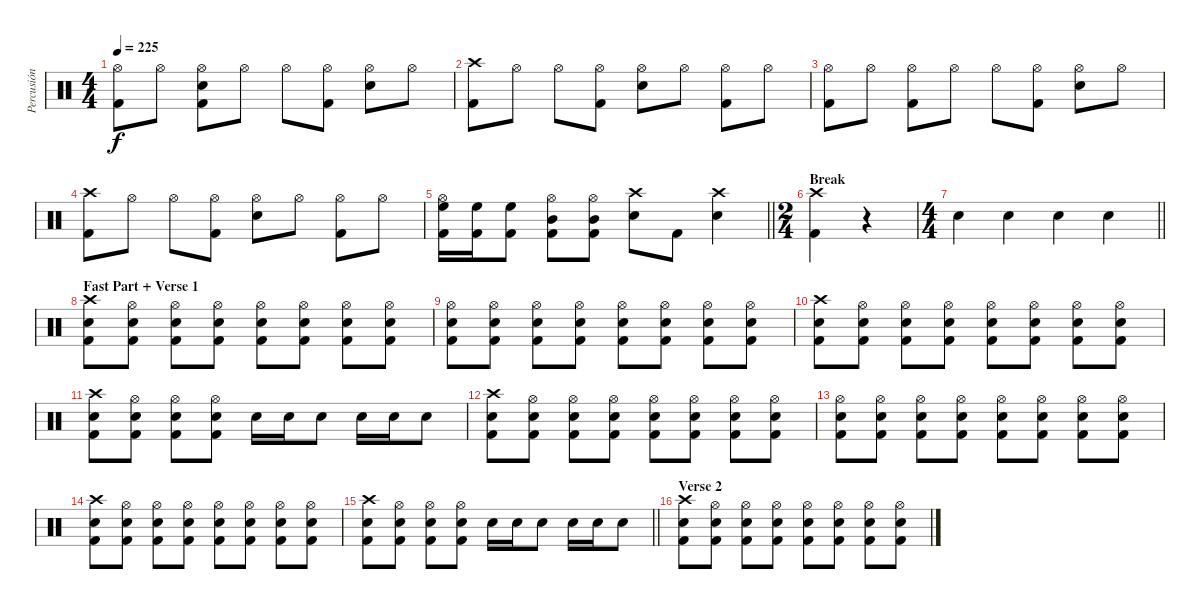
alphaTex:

\track ("Percusión" "Percusión") {instrument percussion}
\staff {score}
\articulation defaults
\ts (4 4)
\tempo 225
\clef neutral
\ks c
("Hi-Hat (open)" "Kick (hit) 2").8{dy f} "Hi-Hat (open)".8 ("Hi-Hat (open)" "Electric Snare (hit)" "Kick (hit) 2").8 "Hi-Hat (open)".8 "Hi-Hat (open)".8 ("Hi-Hat (open)" "Kick (hit) 2").8 ("Hi-Hat (open)" "Electric Snare (hit)").8 "Hi-Hat (open)".8 |
("Crash high (hit)" "Kick (hit) 2").8 "Hi-Hat (open)".8 "Hi-Hat (open)".8 ("Hi-Hat (open)" "Kick (hit) 2").8 ("Hi-Hat (open)" "Electric Snare (hit)").8 "Hi-Hat (open)".8 ("Hi-Hat (open)" "Kick (hit) 2").8 "Hi-Hat (open)".8 |
("Hi-Hat (open)" "Kick (hit) 2").8 "Hi-Hat (open)".8 ("Hi-Hat (open)" "Kick (hit) 2").8 "Hi-Hat (open)".8 "Hi-Hat (open)".8 ("Hi-Hat (open)" "Kick (hit) 2").8 ("Hi-Hat (open)" "Electric Snare (hit)").8 "Hi-Hat (open)".8 |
("Crash high (hit)" "Kick (hit) 2").8 "Hi-Hat (open)".8 "Hi-Hat (open)".8 ("Hi-Hat (open)" "Kick (hit) 2").8 ("Hi-Hat (open)" "Electric Snare (hit)").8 "Hi-Hat (open)".8 ("Hi-Hat (open)" "Kick (hit) 2").8 "Hi-Hat (open)".8 |
\barLineRight lightlight
("Hi-Hat (open)" "High Floor Tom (hit)" "Kick (hit) 2").16 ("High Floor Tom (hit)" "Kick (hit) 2").16 ("High Floor Tom (hit)" "Kick (hit) 2").8 ("Hi-Hat (open)" "Mid Tom (hit)" "Kick (hit) 2").8 ("Hi-Hat (open)" "Mid Tom (hit)" "Kick (hit) 2").8 ("Crash high (hit)" "Electric Snare (hit)").8 "Kick (hit) 2".8 ("Crash high (hit)" "Electric Snare (hit)").4 |
\ts (2 4)
\section ("" "Break")
("Crash high (hit)" "Kick (hit) 2").4 r.4 |
\ts (4 4)
\barLineRight lightlight "Electric Snare (hit)".4 "Electric Snare (hit)".4 "Electric Snare (hit)".4 "Electric Snare (hit)".4
|
\section ("" "Fast Part + Verse 1")
("Crash high (hit)" "Electric Snare (hit)" "Kick (hit) 2").8 ("Hi-Hat (open)" "Electric Snare (hit)" "Kick (hit) 2").8 ("Hi-Hat (open)" "Electric Snare (hit)" "Kick (hit) 2").8 ("Hi-Hat (open)" "Electric Snare (hit)" "Kick (hit) 2").8 ("Hi-Hat (open)" "Electric Snare (hit)" "Kick (hit) 2").8 ("Hi-Hat (open)" "Electric Snare (hit)" "Kick (hit) 2").8 ("Hi-Hat (open)" "Electric Snare (hit)" "Kick (hit) 2").8 ("Hi-Hat (open)" "Electric Snare (hit)" "Kick (hit) 2").8 |
("Hi-Hat (open)" "Electric Snare (hit)" "Kick (hit) 2").8 ("Hi-Hat (open)" "Electric Snare (hit)" "Kick (hit) 2").8 ("Hi-Hat (open)" "Electric Snare (hit)" "Kick (hit) 2").8 ("Hi-Hat (open)" "Electric Snare (hit)" "Kick (hit) 2").8 ("Hi-Hat (open)" "Electric Snare (hit)" "Kick (hit) 2").8 ("Hi-Hat (open)" "Electric Snare (hit)" "Kick (hit) 2").8 ("Hi-Hat (open)" "Electric Snare (hit)" "Kick (hit) 2").8 ("Hi-Hat (open)" "Electric Snare (hit)" "Kick (hit) 2").8 |
("Crash high (hit)" "Electric Snare (hit)" "Kick (hit) 2").8 ("Hi-Hat (open)" "Electric Snare (hit)" "Kick (hit) 2").8 ("Hi-Hat (open)" "Electric Snare (hit)" "Kick (hit) 2").8 ("Hi-Hat (open)" "Electric Snare (hit)" "Kick (hit) 2").8 ("Hi-Hat (open)" "Electric Snare (hit)" "Kick (hit) 2").8 ("Hi-Hat (open)" "Electric Snare (hit)" "Kick (hit) 2").8 ("Hi-Hat (open)" "Electric Snare (hit)" "Kick (hit) 2").8 ("Hi-Hat (open)" "Electric Snare (hit)" "Kick (hit) 2").8 |
("Crash high (hit)" "Electric Snare (hit)" "Kick (hit) 2").8 ("Hi-Hat (open)" "Electric Snare (hit)" "Kick (hit) 2").8 ("Hi-Hat (open)" "Electric Snare (hit)" "Kick (hit) 2").8 ("Hi-Hat (open)" "Electric Snare (hit)" "Kick (hit) 2").8 "Electric Snare (hit)".16 "Electric Snare (hit)".16 "Electric Snare (hit)".8 "Electric Snare (hit)".16 "Electric Snare (hit)".16 "Electric Snare (hit)".8 |
("Crash high (hit)" "Electric Snare (hit)" "Kick (hit) 2").8 ("Hi-Hat (open)" "Electric Snare (hit)" "Kick (hit) 2").8 ("Hi-Hat (open)" "Electric Snare (hit)" "Kick (hit) 2").8 ("Hi-Hat (open)" "Electric Snare (hit)" "Kick (hit) 2").8 ("Hi-Hat (open)" "Electric Snare (hit)" "Kick (hit) 2").8 ("Hi-Hat (open)" "Electric Snare (hit)" "Kick (hit) 2").8 ("Hi-Hat (open)" "Electric Snare (hit)" "Kick (hit) 2").8 ("Hi-Hat (open)" "Electric Snare (hit)" "Kick (hit) 2").8 |
("Hi-Hat (open)" "Electric Snare (hit)" "Kick (hit) 2").8 ("Hi-Hat (open)" "Electric Snare (hit)" "Kick (hit) 2").8 ("Hi-Hat (open)" "Electric Snare (hit)" "Kick (hit) 2").8 ("Hi-Hat (open)" "Electric Snare (hit)" "Kick (hit) 2").8 ("Hi-Hat (open)" "Electric Snare (hit)" "Kick (hit) 2").8 ("Hi-Hat (open)" "Electric Snare (hit)" "Kick (hit) 2").8 ("Hi-Hat (open)" "Electric Snare (hit)" "Kick (hit) 2").8 ("Hi-Hat (open)" "Electric Snare (hit)" "Kick (hit) 2").8 |
("Crash high (hit)" "Electric Snare (hit)" "Kick (hit) 2").8 ("Hi-Hat (open)" "Electric Snare (hit)" "Kick (hit) 2").8 ("Hi-Hat (open)" "Electric Snare (hit)" "Kick (hit) 2").8 ("Hi-Hat (open)" "Electric Snare (hit)" "Kick (hit) 2").8 ("Hi-Hat (open)" "Electric Snare (hit)" "Kick (hit) 2").8 ("Hi-Hat (open)" "Electric Snare (hit)" "Kick (hit) 2").8 ("Hi-Hat (open)" "Electric Snare (hit)" "Kick (hit) 2").8 ("Hi-Hat (open)" "Electric Snare (hit)" "Kick (hit) 2").8 |
\barLineRight lightlight
("Crash high (hit)" "Electric Snare (hit)" "Kick (hit) 2").8 ("Hi-Hat (open)" "Electric Snare (hit)" "Kick (hit) 2").8 ("Hi-Hat (open)" "Electric Snare (hit)" "Kick (hit) 2").8 ("Hi-Hat (open)" "Electric Snare (hit)" "Kick (hit) 2").8 "Electric Snare (hit)".16 "Electric Snare (hit)".16 "Electric Snare (hit)".8 "Electric Snare (hit)".16 "Electric Snare (hit)".16 "Electric Snare (hit)".8 |
\section ("" "Verse 2")
("Crash high (hit)" "Electric Snare (hit)" "Kick (hit) 2").8 ("Hi-Hat (open)" "Electric Snare (hit)" "Kick (hit) 2").8 ("Hi-Hat (open)" "Electric Snare (hit)" "Kick (hit) 2").8 ("Hi-Hat (open)" "Electric Snare (hit)" "Kick (hit) 2").8 ("Hi-Hat (open)" "Electric Snare (hit)" "Kick (hit) 2").8 ("Hi-Hat (open)" "Electric Snare (hit)" "Kick (hit) 2").8 ("Hi-Hat (open)" "Electric Snare (hit)" "Kick (hit) 2").8 ("Hi-Hat (open)" "Electric Snare (hit)" "Kick (hit) 2").8
